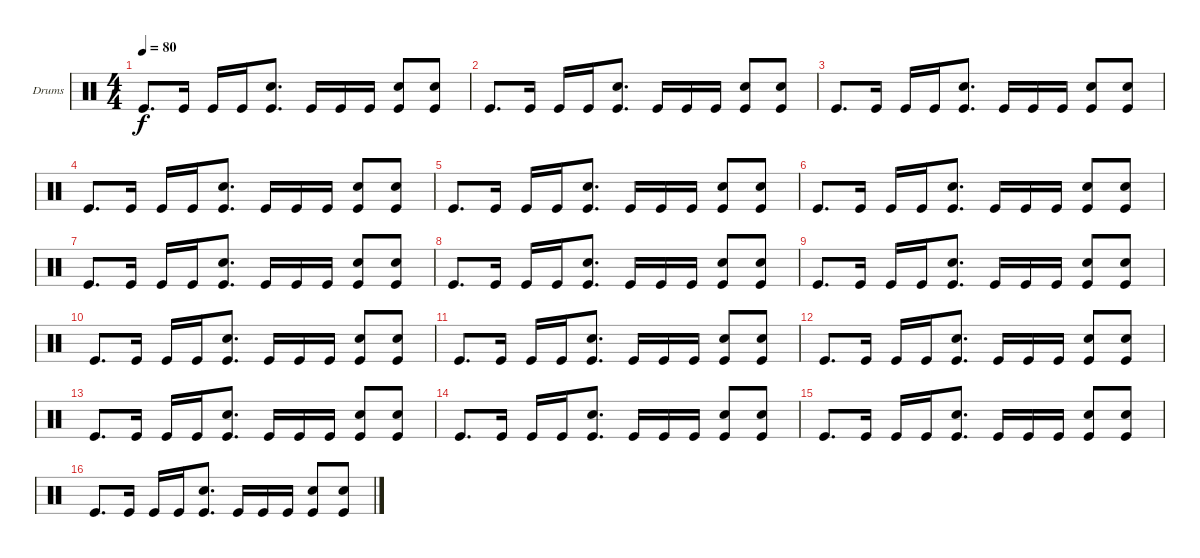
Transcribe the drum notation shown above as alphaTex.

\defaultSystemsLayout 4
\bracketExtendMode groupsimilarinstruments
\firstSystemTrackNameOrientation horizontal
\otherSystemsTrackNameOrientation horizontal
\track ("Jimmy DeGrasso" "Drums") {instrument percussion}
\staff {score}
\articulation defaults
\ts (4 4)
\tempo 80
\clef neutral
\scale
0.333333
\ks c "Kick (hit)".8{d dy f} "Kick (hit)".16 "Kick (hit)".16 "Kick (hit)".16
("Kick (hit)" "Snare (hit) 2").8{d} "Kick (hit)".16 "Kick (hit)".16 "Kick (hit)".16 ("Kick (hit)" "Snare (hit) 2").8 ("Snare (hit) 2" "Kick (hit)").8 |
\scale
0.333333 "Kick (hit)".8{d} "Kick (hit)".16 "Kick (hit)".16 "Kick (hit)".16 ("Kick (hit)" "Snare (hit) 2").8{d} "Kick (hit)".16 "Kick (hit)".16 "Kick (hit)".16 ("Kick (hit)" "Snare (hit) 2").8 ("Snare (hit) 2" "Kick (hit)").8 |
\scale
0.333333 "Kick (hit)".8{d} "Kick (hit)".16 "Kick (hit)".16 "Kick (hit)".16 ("Kick (hit)" "Snare (hit) 2").8{d} "Kick (hit)".16 "Kick (hit)".16 "Kick (hit)".16 ("Kick (hit)" "Snare (hit) 2").8 ("Snare (hit) 2" "Kick (hit)").8 |
\scale
0.333333 "Kick (hit)".8{d} "Kick (hit)".16 "Kick (hit)".16 "Kick (hit)".16 ("Kick (hit)" "Snare (hit) 2").8{d} "Kick (hit)".16 "Kick (hit)".16 "Kick (hit)".16 ("Kick (hit)" "Snare (hit) 2").8 ("Snare (hit) 2" "Kick (hit)").8 |
\scale
0.333333 "Kick (hit)".8{d} "Kick (hit)".16 "Kick (hit)".16 "Kick (hit)".16 ("Kick (hit)" "Snare (hit) 2").8{d} "Kick (hit)".16 "Kick (hit)".16 "Kick (hit)".16 ("Kick (hit)" "Snare (hit) 2").8 ("Snare (hit) 2" "Kick (hit)").8 |
\scale
0.333333 "Kick (hit)".8{d} "Kick (hit)".16 "Kick (hit)".16 "Kick (hit)".16 ("Kick (hit)" "Snare (hit) 2").8{d} "Kick (hit)".16 "Kick (hit)".16 "Kick (hit)".16 ("Kick (hit)" "Snare (hit) 2").8 ("Snare (hit) 2" "Kick (hit)").8 |
\scale
0.333333 "Kick (hit)".8{d} "Kick (hit)".16 "Kick (hit)".16 "Kick (hit)".16 ("Kick (hit)" "Snare (hit) 2").8{d} "Kick (hit)".16 "Kick (hit)".16 "Kick (hit)".16 ("Kick (hit)" "Snare (hit) 2").8 ("Snare (hit) 2" "Kick (hit)").8 |
\scale
0.333333 "Kick (hit)".8{d} "Kick (hit)".16 "Kick (hit)".16 "Kick (hit)".16 ("Kick (hit)" "Snare (hit) 2").8{d} "Kick (hit)".16 "Kick (hit)".16 "Kick (hit)".16 ("Kick (hit)" "Snare (hit) 2").8 ("Snare (hit) 2" "Kick (hit)").8 |
\scale
0.333333 "Kick (hit)".8{d} "Kick (hit)".16 "Kick (hit)".16 "Kick (hit)".16 ("Kick (hit)" "Snare (hit) 2").8{d} "Kick (hit)".16 "Kick (hit)".16 "Kick (hit)".16 ("Kick (hit)" "Snare (hit) 2").8 ("Snare (hit) 2" "Kick (hit)").8 |
\scale
0.333333 "Kick (hit)".8{d} "Kick (hit)".16 "Kick (hit)".16 "Kick (hit)".16 ("Kick (hit)" "Snare (hit) 2").8{d} "Kick (hit)".16 "Kick (hit)".16 "Kick (hit)".16 ("Kick (hit)" "Snare (hit) 2").8 ("Snare (hit) 2" "Kick (hit)").8 |
\scale
0.333333 "Kick (hit)".8{d} "Kick (hit)".16 "Kick (hit)".16 "Kick (hit)".16 ("Kick (hit)" "Snare (hit) 2").8{d} "Kick (hit)".16 "Kick (hit)".16 "Kick (hit)".16 ("Kick (hit)" "Snare (hit) 2").8 ("Snare (hit) 2" "Kick (hit)").8 |
\scale
0.333333 "Kick (hit)".8{d} "Kick (hit)".16 "Kick (hit)".16 "Kick (hit)".16 ("Kick (hit)" "Snare (hit) 2").8{d} "Kick (hit)".16 "Kick (hit)".16 "Kick (hit)".16 ("Kick (hit)" "Snare (hit) 2").8 ("Snare (hit) 2" "Kick (hit)").8 |
\scale
0.333333 "Kick (hit)".8{d} "Kick (hit)".16 "Kick (hit)".16 "Kick (hit)".16 ("Kick (hit)" "Snare (hit) 2").8{d} "Kick (hit)".16 "Kick (hit)".16 "Kick (hit)".16 ("Kick (hit)" "Snare (hit) 2").8 ("Snare (hit) 2" "Kick (hit)").8 |
\scale
0.333333 "Kick (hit)".8{d} "Kick (hit)".16 "Kick (hit)".16 "Kick (hit)".16 ("Kick (hit)" "Snare (hit) 2").8{d} "Kick (hit)".16 "Kick (hit)".16 "Kick (hit)".16 ("Kick (hit)" "Snare (hit) 2").8 ("Snare (hit) 2" "Kick (hit)").8 |
\scale
0.333333 "Kick (hit)".8{d} "Kick (hit)".16 "Kick (hit)".16 "Kick (hit)".16 ("Kick (hit)" "Snare (hit) 2").8{d} "Kick (hit)".16 "Kick (hit)".16 "Kick (hit)".16 ("Kick (hit)" "Snare (hit) 2").8 ("Snare (hit) 2" "Kick (hit)").8 |
\scale
0.333333 "Kick (hit)".8{d} "Kick (hit)".16 "Kick (hit)".16 "Kick (hit)".16 ("Kick (hit)" "Snare (hit) 2").8{d} "Kick (hit)".16 "Kick (hit)".16 "Kick (hit)".16 ("Kick (hit)" "Snare (hit) 2").8 ("Snare (hit) 2" "Kick (hit)").8
